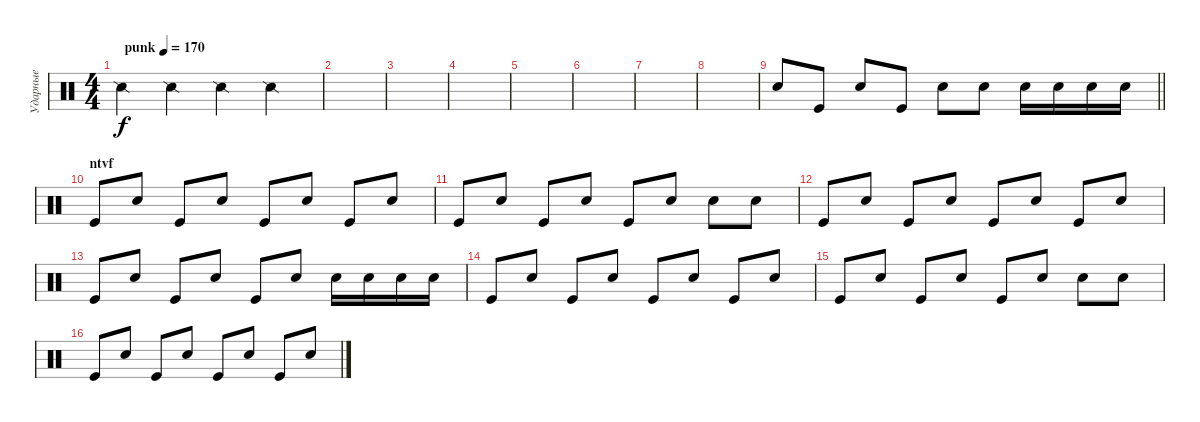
\track ("Ударные" "Ударные") {instrument percussion}
\staff {score}
\articulation defaults
\ts (4 4)
\tempo (170 "punk")
\clef neutral
\ks c "Snare (side stick) 2".4{dy f} "Snare (side stick) 2".4 "Snare (side stick) 2".4 "Snare (side stick) 2".4
|
|
|
|
|
|
|
|
\barLineRight lightlight "Snare (hit) 2".8 "Kick (hit)".8 "Snare (hit) 2".8 "Kick (hit)".8 "Snare (hit) 2".8 "Snare (hit) 2".8 "Snare (hit) 2".16 "Snare (hit) 2".16 "Snare (hit) 2".16 "Snare (hit) 2".16
|
\section ("" "ntvf")
"Kick (hit)".8 "Snare (hit) 2".8 "Kick (hit)".8 "Snare (hit) 2".8 "Kick (hit)".8 "Snare (hit) 2".8 "Kick (hit)".8 "Snare (hit) 2".8 |
"Kick (hit)".8 "Snare (hit) 2".8 "Kick (hit)".8 "Snare (hit) 2".8 "Kick (hit)".8 "Snare (hit) 2".8 "Snare (hit) 2".8 "Snare (hit) 2".8 |
"Kick (hit)".8 "Snare (hit) 2".8 "Kick (hit)".8 "Snare (hit) 2".8 "Kick (hit)".8 "Snare (hit) 2".8 "Kick (hit)".8 "Snare (hit) 2".8 |
"Kick (hit)".8 "Snare (hit) 2".8 "Kick (hit)".8 "Snare (hit) 2".8 "Kick (hit)".8 "Snare (hit) 2".8 "Snare (hit) 2".16 "Snare (hit) 2".16 "Snare (hit) 2".16 "Snare (hit) 2".16 |
"Kick (hit)".8 "Snare (hit) 2".8 "Kick (hit)".8 "Snare (hit) 2".8 "Kick (hit)".8 "Snare (hit) 2".8 "Kick (hit)".8 "Snare (hit) 2".8 |
"Kick (hit)".8 "Snare (hit) 2".8 "Kick (hit)".8 "Snare (hit) 2".8 "Kick (hit)".8 "Snare (hit) 2".8 "Snare (hit) 2".8 "Snare (hit) 2".8 |
"Kick (hit)".8 "Snare (hit) 2".8 "Kick (hit)".8 "Snare (hit) 2".8 "Kick (hit)".8 "Snare (hit) 2".8 "Kick (hit)".8 "Snare (hit) 2".8
